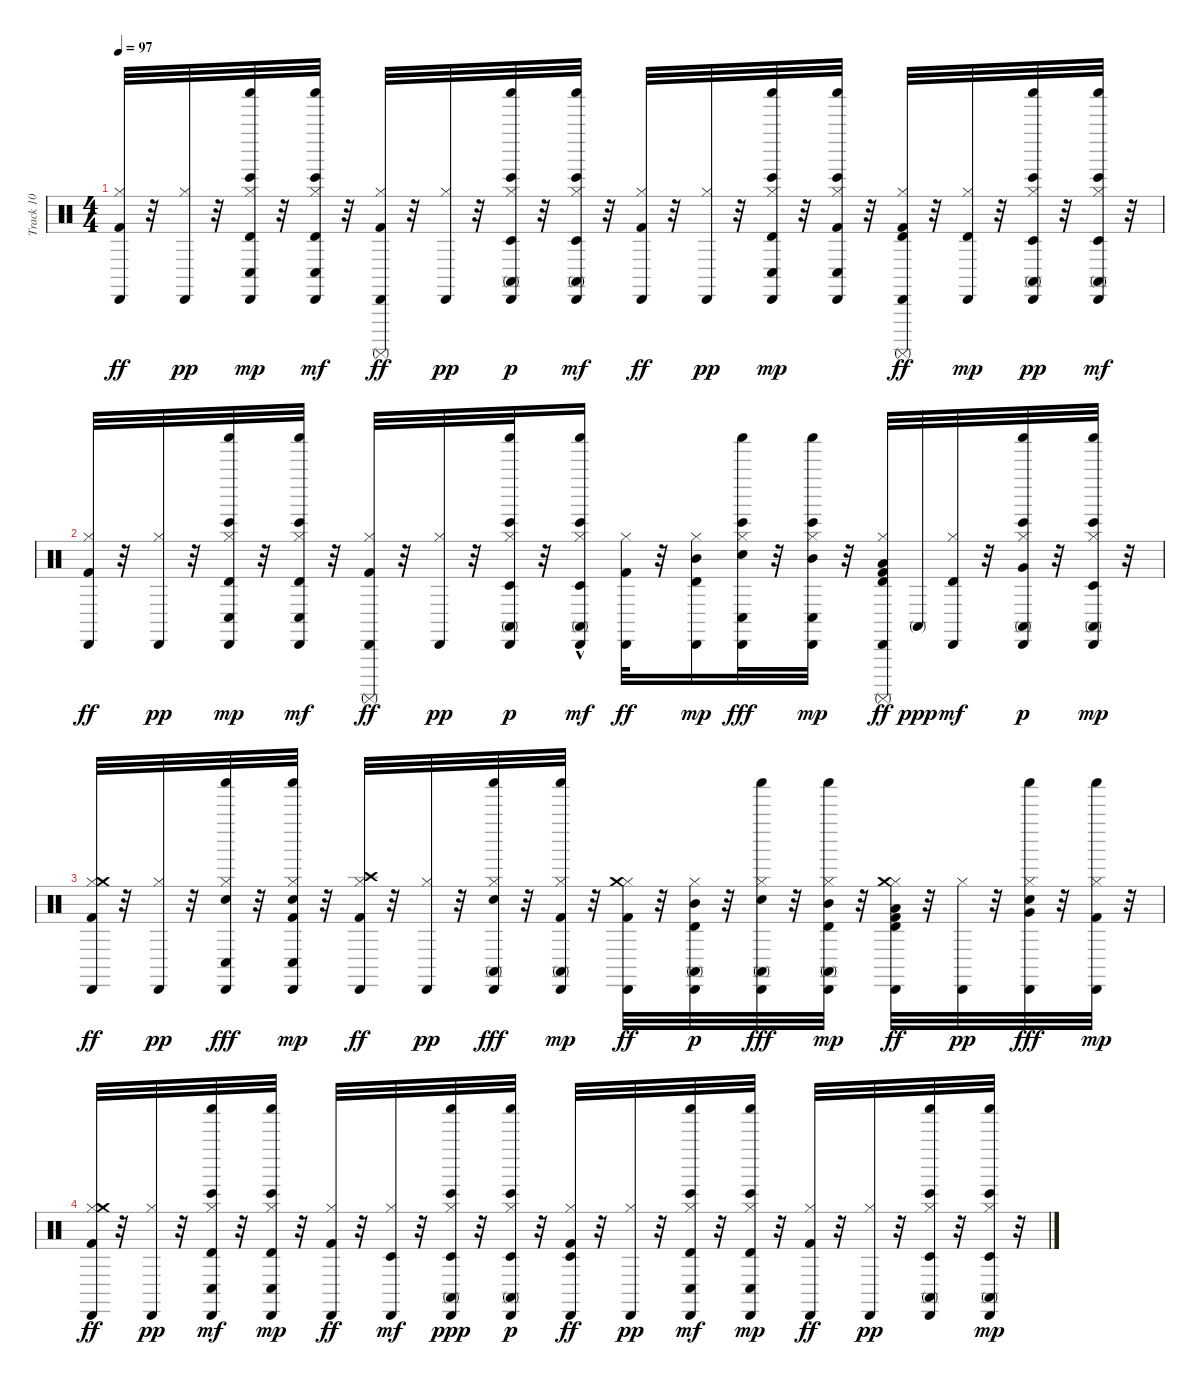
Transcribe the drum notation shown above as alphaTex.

\track ("Track 10" "Track 10") {instrument percussion}
\staff {score}
\articulation defaults
\ts (4 4)
\tempo 97
\clef neutral
\ks c
("Hi-Hat (closed)" "Cabasa (hit)" "Kick (hit) 2").32{dy ff} r.32 ("Hi-Hat (closed)" "Cabasa (hit)").32{dy pp} r.32 ("Hi-Hat (closed)" "Shaker (hit)" "Conga low (hit)" "Bongo High (hit)" "Cabasa (hit)" "Timbale high (hit)").32{dy mp} r.32 ("Hi-Hat (closed)" "Shaker (hit)" "Conga low (hit)" "Bongo High (hit)" "Cabasa (hit)" "Timbale high (hit)").32{dy mf} r.32 ("Hi-Hat (closed)" "Cabasa (hit)" "Surdo (mute)" "Kick (hit) 2").32{dy ff} r.32 ("Hi-Hat (closed)" "Cabasa (hit)").32{dy pp} r.32 ("Hi-Hat (closed)" "Shaker (hit)" "Conga high (mute)" "Bongo High (hit)" "Cabasa (hit)" "Timbale low (hit)").32{dy p} r.32 ("Hi-Hat (closed)" "Shaker (hit)" "Conga high (mute)" "Bongo High (hit)" "Cabasa (hit)" "Timbale low (hit)").32{dy mf} r.32 ("Hi-Hat (closed)" "Cabasa (hit)" "Kick (hit) 2").32{dy ff} r.32 ("Hi-Hat (closed)" "Cabasa (hit)").32{dy pp} r.32 ("Hi-Hat (closed)" "Shaker (hit)" "Conga low (hit)" "Bongo High (hit)" "Cabasa (hit)" "Timbale high (hit)").32{dy mp} r.32 ("Hi-Hat (closed)" "Shaker (hit)" "Conga low (hit)" "Bongo High (hit)" "Cabasa (hit)" "Kick (hit) 2").32 r.32 ("Hi-Hat (closed)" "Cabasa (hit)" "Timbale high (hit)" "Surdo (mute)" "Kick (hit) 2").32{dy ff} r.32 ("Hi-Hat (closed)" "Cabasa (hit)" "Timbale high (hit)").32{dy mp} r.32 ("Hi-Hat (closed)" "Shaker (hit)" "Conga high (mute)" "Bongo High (hit)" "Cabasa (hit)" "Timbale low (hit)").32{dy pp} r.32 ("Hi-Hat (closed)" "Shaker (hit)" "Conga high (mute)" "Bongo High (hit)" "Cabasa (hit)" "Timbale low (hit)").32{dy mf} r.32 |
("Hi-Hat (closed)" "Cabasa (hit)" "Kick (hit) 2").32{dy ff} r.32 ("Hi-Hat (closed)" "Cabasa (hit)").32{dy pp} r.32 ("Hi-Hat (closed)" "Shaker (hit)" "Conga low (hit)" "Bongo High (hit)" "Cabasa (hit)" "Timbale high (hit)").32{dy mp} r.32 ("Hi-Hat (closed)" "Shaker (hit)" "Conga low (hit)" "Bongo High (hit)" "Cabasa (hit)" "Timbale high (hit)").32{dy mf} r.32 ("Hi-Hat (closed)" "Cabasa (hit)" "Surdo (mute)" "Kick (hit) 2").32{dy ff} r.32 ("Hi-Hat (closed)" "Cabasa (hit)").32{dy pp} r.32 ("Hi-Hat (closed)" "Shaker (hit)" "Conga high (mute)" "Bongo High (hit)" "Cabasa (hit)" "Timbale low (hit)").32{dy p} r.32 ("Hi-Hat (closed)" "Shaker (hit)" "Conga high (mute)" "Bongo High (hit)" "Cabasa (hit)" "Timbale low (hit)"{hac}).16{dy mf} ("Hi-Hat (closed)" "Cabasa (hit)" "Kick (hit) 2").32{dy ff} r.32 ("Hi-Hat (closed)" "Cabasa (hit)" "Mid Tom (hit)" "Timbale high (hit)").16{dy mp} ("Hi-Hat (closed)" "Shaker (hit)" "Conga low (hit)" "Bongo High (hit)" "Cabasa (hit)" "Snare (hit) 2").32{dy fff} r.32 ("Hi-Hat (closed)" "Shaker (hit)" "Conga low (hit)" "Bongo High (hit)" "Cabasa (hit)" "Mid Tom (hit)").32{dy mp} r.32 ("Hi-Hat (closed)" "Cabasa (hit)" "Low Tom (hit)" "Timbale high (hit)" "Surdo (mute)" "Kick (hit) 2").32{dy ff} "Conga high (mute)".32{dy ppp} ("Hi-Hat (closed)" "Cabasa (hit)" "Timbale high (hit)").32{dy mf} r.32 ("Hi-Hat (closed)" "Shaker (hit)" "Conga high (mute)" "Bongo High (hit)" "Cabasa (hit)" "Very Low Tom (hit)").32{dy p} r.32 ("Hi-Hat (closed)" "Shaker (hit)" "Conga high (mute)" "Bongo High (hit)" "Cabasa (hit)" "Timbale low (hit)").32{dy mp} r.32 |
("Hi-Hat (closed)" "Cabasa (hit)" "Crash medium (hit)" "Kick (hit) 2").32{dy ff} r.32 ("Hi-Hat (closed)" "Cabasa (hit)").32{dy pp} r.32 ("Hi-Hat (closed)" "Shaker (hit)" "Conga low (hit)" "Cabasa (hit)" "Snare (hit) 2").32{dy fff} r.32 ("Hi-Hat (closed)" "Shaker (hit)" "Conga low (hit)" "Cabasa (hit)" "Kick (hit) 2" "Snare (hit) 2").32{dy mp} r.32 ("Hi-Hat (closed)" "Cabasa (hit)" "Crash high (hit)" "Kick (hit) 2").32{dy ff} r.32 ("Hi-Hat (closed)" "Cabasa (hit)").32{dy pp} r.32 ("Hi-Hat (closed)" "Shaker (hit)" "Conga high (mute)" "Cabasa (hit)" "Snare (hit) 2").32{dy fff} r.32 ("Hi-Hat (closed)" "Shaker (hit)" "Conga high (mute)" "Cabasa (hit)" "Kick (hit) 2").32{dy mp} r.32 ("Hi-Hat (closed)" "Cabasa (hit)" "Crash medium (hit)" "Kick (hit) 2").32{dy ff} r.32 ("Hi-Hat (closed)" "Conga high (mute)" "Cabasa (hit)" "Mid Tom (hit)" "Timbale high (hit)").32{dy p} r.32 ("Hi-Hat (closed)" "Shaker (hit)" "Conga high (mute)" "Cabasa (hit)" "Snare (hit) 2").32{dy fff} r.32 ("Hi-Hat (closed)" "Shaker (hit)" "Conga high (mute)" "Cabasa (hit)" "Mid Tom (hit)" "Timbale high (hit)").32{dy mp} r.32 ("Hi-Hat (closed)" "Cabasa (hit)" "Crash medium (hit)" "Low Tom (hit)" "Timbale high (hit)" "Kick (hit) 2").32{dy ff} r.32 ("Hi-Hat (closed)" "Cabasa (hit)").32{dy pp} r.32 ("Hi-Hat (closed)" "Shaker (hit)" "Cabasa (hit)" "Very Low Tom (hit)" "Snare (hit) 2").32{dy fff} r.32 ("Hi-Hat (closed)" "Shaker (hit)" "Cabasa (hit)" "Kick (hit) 2").32{dy mp} r.32 |
("Hi-Hat (closed)" "Cabasa (hit)" "Crash medium (hit)" "Kick (hit) 2").32{dy ff} r.32 ("Hi-Hat (closed)" "Cabasa (hit)").32{dy pp} r.32 ("Hi-Hat (closed)" "Shaker (hit)" "Conga low (hit)" "Bongo High (hit)" "Cabasa (hit)" "Timbale high (hit)").32{dy mf} r.32 ("Hi-Hat (closed)" "Shaker (hit)" "Conga low (hit)" "Bongo High (hit)" "Cabasa (hit)" "Timbale high (hit)").32{dy mp} r.32 ("Hi-Hat (closed)" "Cabasa (hit)" "Kick (hit) 2").32{dy ff} r.32 ("Hi-Hat (closed)" "Cabasa (hit)" "Timbale low (hit)").32{dy mf} r.32 ("Hi-Hat (closed)" "Shaker (hit)" "Conga high (mute)" "Bongo High (hit)" "Cabasa (hit)" "Timbale low (hit)").32{dy ppp} r.32 ("Hi-Hat (closed)" "Shaker (hit)" "Conga high (mute)" "Bongo High (hit)" "Cabasa (hit)" "Timbale low (hit)").32{dy p} r.32 ("Hi-Hat (closed)" "Cabasa (hit)" "Timbale low (hit)" "Kick (hit) 2").32{dy ff} r.32 ("Hi-Hat (closed)" "Cabasa (hit)").32{dy pp} r.32 ("Hi-Hat (closed)" "Shaker (hit)" "Conga low (hit)" "Bongo High (hit)" "Cabasa (hit)" "Timbale high (hit)").32{dy mf} r.32 ("Hi-Hat (closed)" "Shaker (hit)" "Conga low (hit)" "Bongo High (hit)" "Cabasa (hit)" "Timbale high (hit)").32{dy mp} r.32 ("Hi-Hat (closed)" "Cabasa (hit)" "Kick (hit) 2").32{dy ff} r.32 ("Hi-Hat (closed)" "Cabasa (hit)").32{dy pp} r.32 ("Hi-Hat (closed)" "Shaker (hit)" "Conga high (mute)" "Bongo High (hit)" "Cabasa (hit)" "Timbale low (hit)").32 r.32 ("Hi-Hat (closed)" "Shaker (hit)" "Conga high (mute)" "Bongo High (hit)" "Cabasa (hit)" "Timbale low (hit)").32{dy mp} r.32
